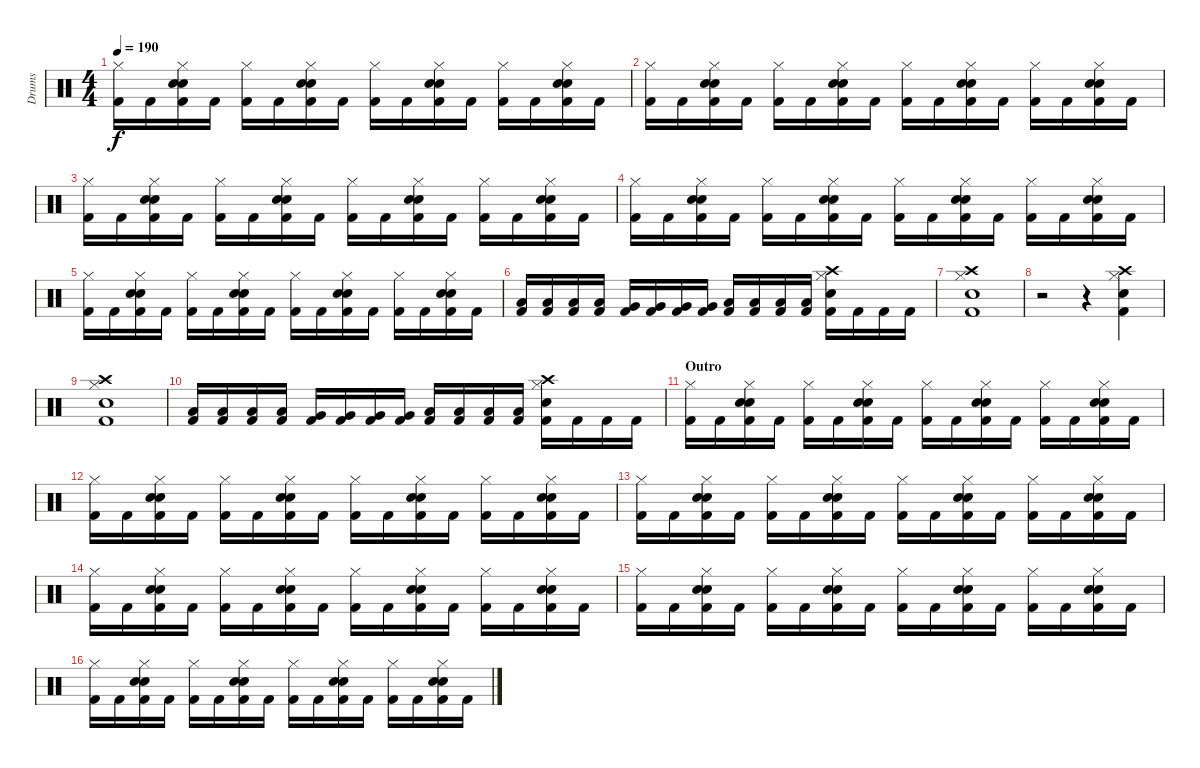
\track ("Drums" "Drums") {instrument percussion}
\staff {score}
\articulation defaults
\ts (4 4)
\tempo 190
\clef neutral
\ks c
("Hi-Hat (closed)" "Kick (hit) 2").16{dy f} "Kick (hit) 2".16 ("Snare (hit) 2" "Hi-Hat (closed)" "Snare (hit) 2" "Kick (hit) 2").16 "Kick (hit) 2".16 ("Hi-Hat (closed)" "Kick (hit) 2").16 "Kick (hit) 2".16 ("Snare (hit) 2" "Hi-Hat (closed)" "Snare (hit) 2" "Kick (hit) 2").16 "Kick (hit) 2".16 ("Hi-Hat (closed)" "Kick (hit) 2").16 "Kick (hit) 2".16 ("Snare (hit) 2" "Hi-Hat (closed)" "Snare (hit) 2" "Kick (hit) 2").16 "Kick (hit) 2".16 ("Hi-Hat (closed)" "Kick (hit) 2").16 "Kick (hit) 2".16 ("Snare (hit) 2" "Hi-Hat (closed)" "Snare (hit) 2" "Kick (hit) 2").16 "Kick (hit) 2".16 |
("Hi-Hat (closed)" "Kick (hit) 2").16 "Kick (hit) 2".16 ("Snare (hit) 2" "Hi-Hat (closed)" "Snare (hit) 2" "Kick (hit) 2").16 "Kick (hit) 2".16 ("Hi-Hat (closed)" "Kick (hit) 2").16 "Kick (hit) 2".16 ("Snare (hit) 2" "Hi-Hat (closed)" "Snare (hit) 2" "Kick (hit) 2").16 "Kick (hit) 2".16 ("Hi-Hat (closed)" "Kick (hit) 2").16 "Kick (hit) 2".16 ("Snare (hit) 2" "Hi-Hat (closed)" "Snare (hit) 2" "Kick (hit) 2").16 "Kick (hit) 2".16 ("Hi-Hat (closed)" "Kick (hit) 2").16 "Kick (hit) 2".16 ("Snare (hit) 2" "Hi-Hat (closed)" "Snare (hit) 2" "Kick (hit) 2").16 "Kick (hit) 2".16 |
("Hi-Hat (closed)" "Kick (hit) 2").16 "Kick (hit) 2".16 ("Snare (hit) 2" "Hi-Hat (closed)" "Snare (hit) 2" "Kick (hit) 2").16 "Kick (hit) 2".16 ("Hi-Hat (closed)" "Kick (hit) 2").16 "Kick (hit) 2".16 ("Snare (hit) 2" "Hi-Hat (closed)" "Snare (hit) 2" "Kick (hit) 2").16 "Kick (hit) 2".16 ("Hi-Hat (closed)" "Kick (hit) 2").16 "Kick (hit) 2".16 ("Snare (hit) 2" "Hi-Hat (closed)" "Snare (hit) 2" "Kick (hit) 2").16 "Kick (hit) 2".16 ("Hi-Hat (closed)" "Kick (hit) 2").16 "Kick (hit) 2".16 ("Snare (hit) 2" "Hi-Hat (closed)" "Snare (hit) 2" "Kick (hit) 2").16 "Kick (hit) 2".16 |
("Hi-Hat (closed)" "Kick (hit) 2").16 "Kick (hit) 2".16 ("Snare (hit) 2" "Hi-Hat (closed)" "Snare (hit) 2" "Kick (hit) 2").16 "Kick (hit) 2".16 ("Hi-Hat (closed)" "Kick (hit) 2").16 "Kick (hit) 2".16 ("Snare (hit) 2" "Hi-Hat (closed)" "Snare (hit) 2" "Kick (hit) 2").16 "Kick (hit) 2".16 ("Hi-Hat (closed)" "Kick (hit) 2").16 "Kick (hit) 2".16 ("Snare (hit) 2" "Hi-Hat (closed)" "Snare (hit) 2" "Kick (hit) 2").16 "Kick (hit) 2".16 ("Hi-Hat (closed)" "Kick (hit) 2").16 "Kick (hit) 2".16 ("Snare (hit) 2" "Hi-Hat (closed)" "Snare (hit) 2" "Kick (hit) 2").16 "Kick (hit) 2".16 |
("Hi-Hat (closed)" "Kick (hit) 2").16 "Kick (hit) 2".16 ("Snare (hit) 2" "Hi-Hat (closed)" "Snare (hit) 2" "Kick (hit) 2").16 "Kick (hit) 2".16 ("Hi-Hat (closed)" "Kick (hit) 2").16 "Kick (hit) 2".16 ("Snare (hit) 2" "Hi-Hat (closed)" "Snare (hit) 2" "Kick (hit) 2").16 "Kick (hit) 2".16 ("Hi-Hat (closed)" "Kick (hit) 2").16 "Kick (hit) 2".16 ("Snare (hit) 2" "Hi-Hat (closed)" "Snare (hit) 2" "Kick (hit) 2").16 "Kick (hit) 2".16 ("Hi-Hat (closed)" "Kick (hit) 2").16 "Kick (hit) 2".16 ("Snare (hit) 2" "Hi-Hat (closed)" "Snare (hit) 2" "Kick (hit) 2").16 "Kick (hit) 2".16 |
("Low Tom (hit)" "Kick (hit) 2").16 ("Low Tom (hit)" "Kick (hit) 2").16 ("Low Tom (hit)" "Kick (hit) 2").16 ("Low Tom (hit)" "Kick (hit) 2").16 ("Very Low Tom (hit)" "Kick (hit) 2").16 ("Very Low Tom (hit)" "Kick (hit) 2").16 ("Very Low Tom (hit)" "Kick (hit) 2").16 ("Very Low Tom (hit)" "Kick (hit) 2").16 ("Low Floor Tom (hit)" "Kick (hit) 2").16 ("Low Floor Tom (hit)" "Kick (hit) 2").16 ("Low Floor Tom (hit)" "Kick (hit) 2").16 ("Low Floor Tom (hit)" "Kick (hit) 2").16 ("Crash high (hit)" "Hi-Hat (closed)" "Snare (hit) 2" "Kick (hit) 2").16 "Kick (hit) 2".16 "Kick (hit) 2".16 "Kick (hit) 2".16 |
("Crash high (hit)" "Hi-Hat (closed)" "Snare (hit) 2" "Kick (hit) 2").1 |
r.2 r.4 ("Crash high (hit)" "Hi-Hat (closed)" "Snare (hit) 2" "Kick (hit) 2").4 |
("Crash high (hit)" "Hi-Hat (closed)" "Snare (hit) 2" "Kick (hit) 2").1 |
("Low Tom (hit)" "Kick (hit) 2").16 ("Low Tom (hit)" "Kick (hit) 2").16 ("Low Tom (hit)" "Kick (hit) 2").16 ("Low Tom (hit)" "Kick (hit) 2").16 ("Very Low Tom (hit)" "Kick (hit) 2").16 ("Very Low Tom (hit)" "Kick (hit) 2").16 ("Very Low Tom (hit)" "Kick (hit) 2").16 ("Very Low Tom (hit)" "Kick (hit) 2").16 ("Low Floor Tom (hit)" "Kick (hit) 2").16 ("Low Floor Tom (hit)" "Kick (hit) 2").16 ("Low Floor Tom (hit)" "Kick (hit) 2").16 ("Low Floor Tom (hit)" "Kick (hit) 2").16 ("Crash high (hit)" "Hi-Hat (closed)" "Snare (hit) 2" "Kick (hit) 2").16 "Kick (hit) 2".16 "Kick (hit) 2".16 "Kick (hit) 2".16 |
\section ("" "Outro")
("Hi-Hat (closed)" "Kick (hit) 2").16 "Kick (hit) 2".16 ("Snare (hit) 2" "Hi-Hat (closed)" "Snare (hit) 2" "Kick (hit) 2").16 "Kick (hit) 2".16 ("Hi-Hat (closed)" "Kick (hit) 2").16 "Kick (hit) 2".16 ("Snare (hit) 2" "Hi-Hat (closed)" "Snare (hit) 2" "Kick (hit) 2").16 "Kick (hit) 2".16 ("Hi-Hat (closed)" "Kick (hit) 2").16 "Kick (hit) 2".16 ("Snare (hit) 2" "Hi-Hat (closed)" "Snare (hit) 2" "Kick (hit) 2").16 "Kick (hit) 2".16 ("Hi-Hat (closed)" "Kick (hit) 2").16 "Kick (hit) 2".16 ("Snare (hit) 2" "Hi-Hat (closed)" "Snare (hit) 2" "Kick (hit) 2").16 "Kick (hit) 2".16 |
("Hi-Hat (closed)" "Kick (hit) 2").16 "Kick (hit) 2".16 ("Snare (hit) 2" "Hi-Hat (closed)" "Snare (hit) 2" "Kick (hit) 2").16 "Kick (hit) 2".16 ("Hi-Hat (closed)" "Kick (hit) 2").16 "Kick (hit) 2".16 ("Snare (hit) 2" "Hi-Hat (closed)" "Snare (hit) 2" "Kick (hit) 2").16 "Kick (hit) 2".16 ("Hi-Hat (closed)" "Kick (hit) 2").16 "Kick (hit) 2".16 ("Snare (hit) 2" "Hi-Hat (closed)" "Snare (hit) 2" "Kick (hit) 2").16 "Kick (hit) 2".16 ("Hi-Hat (closed)" "Kick (hit) 2").16 "Kick (hit) 2".16 ("Snare (hit) 2" "Hi-Hat (closed)" "Snare (hit) 2" "Kick (hit) 2").16 "Kick (hit) 2".16 |
("Hi-Hat (closed)" "Kick (hit) 2").16 "Kick (hit) 2".16 ("Snare (hit) 2" "Hi-Hat (closed)" "Snare (hit) 2" "Kick (hit) 2").16 "Kick (hit) 2".16 ("Hi-Hat (closed)" "Kick (hit) 2").16 "Kick (hit) 2".16 ("Snare (hit) 2" "Hi-Hat (closed)" "Snare (hit) 2" "Kick (hit) 2").16 "Kick (hit) 2".16 ("Hi-Hat (closed)" "Kick (hit) 2").16 "Kick (hit) 2".16 ("Snare (hit) 2" "Hi-Hat (closed)" "Snare (hit) 2" "Kick (hit) 2").16 "Kick (hit) 2".16 ("Hi-Hat (closed)" "Kick (hit) 2").16 "Kick (hit) 2".16 ("Snare (hit) 2" "Hi-Hat (closed)" "Snare (hit) 2" "Kick (hit) 2").16 "Kick (hit) 2".16 |
("Hi-Hat (closed)" "Kick (hit) 2").16 "Kick (hit) 2".16 ("Snare (hit) 2" "Hi-Hat (closed)" "Snare (hit) 2" "Kick (hit) 2").16 "Kick (hit) 2".16 ("Hi-Hat (closed)" "Kick (hit) 2").16 "Kick (hit) 2".16 ("Snare (hit) 2" "Hi-Hat (closed)" "Snare (hit) 2" "Kick (hit) 2").16 "Kick (hit) 2".16 ("Hi-Hat (closed)" "Kick (hit) 2").16 "Kick (hit) 2".16 ("Snare (hit) 2" "Hi-Hat (closed)" "Snare (hit) 2" "Kick (hit) 2").16 "Kick (hit) 2".16 ("Hi-Hat (closed)" "Kick (hit) 2").16 "Kick (hit) 2".16 ("Snare (hit) 2" "Hi-Hat (closed)" "Snare (hit) 2" "Kick (hit) 2").16 "Kick (hit) 2".16 |
("Hi-Hat (closed)" "Kick (hit) 2").16 "Kick (hit) 2".16 ("Snare (hit) 2" "Hi-Hat (closed)" "Snare (hit) 2" "Kick (hit) 2").16 "Kick (hit) 2".16 ("Hi-Hat (closed)" "Kick (hit) 2").16 "Kick (hit) 2".16 ("Snare (hit) 2" "Hi-Hat (closed)" "Snare (hit) 2" "Kick (hit) 2").16 "Kick (hit) 2".16 ("Hi-Hat (closed)" "Kick (hit) 2").16 "Kick (hit) 2".16 ("Snare (hit) 2" "Hi-Hat (closed)" "Snare (hit) 2" "Kick (hit) 2").16 "Kick (hit) 2".16 ("Hi-Hat (closed)" "Kick (hit) 2").16 "Kick (hit) 2".16 ("Snare (hit) 2" "Hi-Hat (closed)" "Snare (hit) 2" "Kick (hit) 2").16 "Kick (hit) 2".16 |
("Hi-Hat (closed)" "Kick (hit) 2").16 "Kick (hit) 2".16 ("Snare (hit) 2" "Hi-Hat (closed)" "Snare (hit) 2" "Kick (hit) 2").16 "Kick (hit) 2".16 ("Hi-Hat (closed)" "Kick (hit) 2").16 "Kick (hit) 2".16 ("Snare (hit) 2" "Hi-Hat (closed)" "Snare (hit) 2" "Kick (hit) 2").16 "Kick (hit) 2".16 ("Hi-Hat (closed)" "Kick (hit) 2").16 "Kick (hit) 2".16 ("Snare (hit) 2" "Hi-Hat (closed)" "Snare (hit) 2" "Kick (hit) 2").16 "Kick (hit) 2".16 ("Hi-Hat (closed)" "Kick (hit) 2").16 "Kick (hit) 2".16 ("Snare (hit) 2" "Hi-Hat (closed)" "Snare (hit) 2" "Kick (hit) 2").16 "Kick (hit) 2".16
